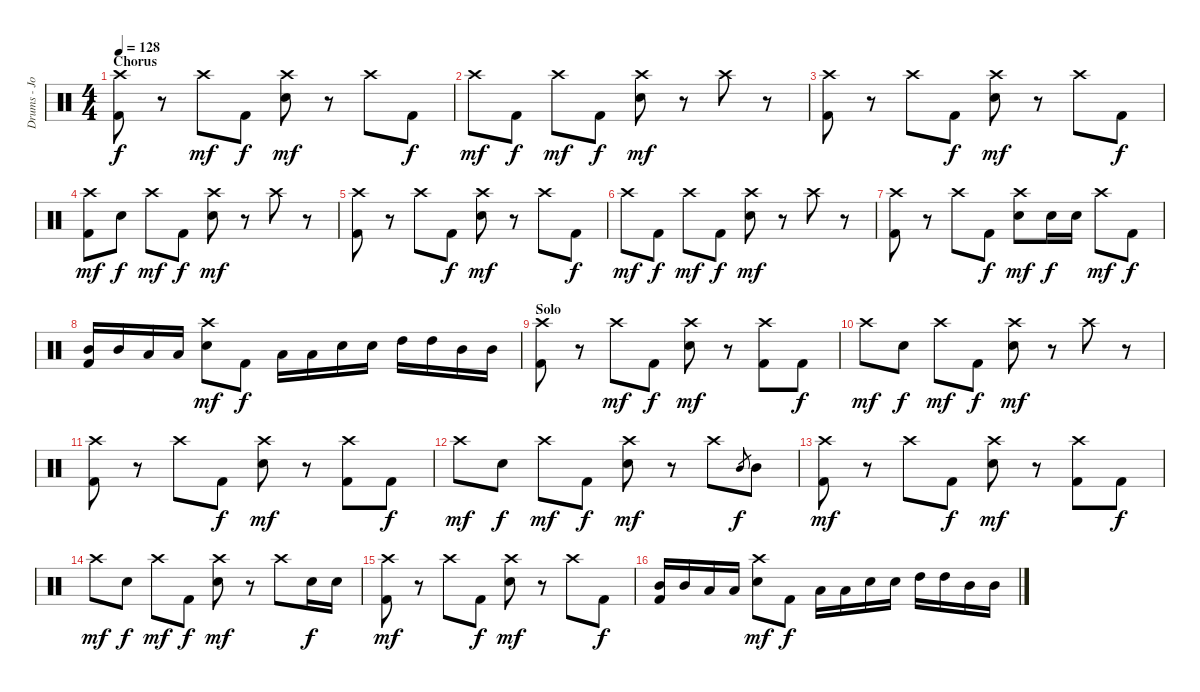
\track ("Drums - John Humphrey" "Drums - Jo") {instrument percussion}
\staff {score}
\articulation defaults
\ts (4 4)
\section ("" "Chorus")
\tempo 128
\clef neutral
\ks c
("Crash high (hit)" "Kick (hit) 2").8{dy f} r.8 "Crash high (hit)".8{dy mf} "Kick (hit) 2".8{dy f} ("Crash high (hit)" "Electric Snare (hit)").8{dy mf} r.8 "Crash high (hit)".8 "Kick (hit) 2".8{dy f} |
"Crash high (hit)".8{dy mf} "Kick (hit) 2".8{dy f} "Crash high (hit)".8{dy mf} "Kick (hit) 2".8{dy f} ("Crash high (hit)" "Electric Snare (hit)").8{dy mf} r.8 "Crash high (hit)".8 r.8 |
("Crash high (hit)" "Kick (hit) 2").8 r.8 "Crash high (hit)".8 "Kick (hit) 2".8{dy f} ("Crash high (hit)" "Electric Snare (hit)").8{dy mf} r.8 "Crash high (hit)".8 "Kick (hit) 2".8{dy f} |
("Crash high (hit)" "Kick (hit) 2").8{dy mf} "Electric Snare (hit)".8{dy f} "Crash high (hit)".8{dy mf} "Kick (hit) 2".8{dy f} ("Crash high (hit)" "Electric Snare (hit)").8{dy mf} r.8 "Crash high (hit)".8 r.8 |
("Crash high (hit)" "Kick (hit) 2").8 r.8 "Crash high (hit)".8 "Kick (hit) 2".8{dy f} ("Crash high (hit)" "Electric Snare (hit)").8{dy mf} r.8 "Crash high (hit)".8 "Kick (hit) 2".8{dy f} |
"Crash high (hit)".8{dy mf} "Kick (hit) 2".8{dy f} "Crash high (hit)".8{dy mf} "Kick (hit) 2".8{dy f} ("Crash high (hit)" "Electric Snare (hit)").8{dy mf} r.8 "Crash high (hit)".8 r.8 |
("Crash high (hit)" "Kick (hit) 2").8 r.8 "Crash high (hit)".8 "Kick (hit) 2".8{dy f} ("Crash high (hit)" "Electric Snare (hit)").8{dy mf} "Electric Snare (hit)".16{dy f} "Electric Snare (hit)".16 "Crash high (hit)".8{dy mf} "Kick (hit) 2".8{dy f} |
("Mid Tom (hit)" "Kick (hit) 2").16 "Mid Tom (hit)".16 "Low Tom (hit)".16 "Low Tom (hit)".16 ("Crash high (hit)" "Electric Snare (hit)").8{dy mf} "Kick (hit) 2".8{dy f} "Low Tom (hit)".16 "Low Tom (hit)".16 "Electric Snare (hit)".16 "Electric Snare (hit)".16 "High Tom (hit)".16 "High Tom (hit)".16 "Mid Tom (hit)".16 "Mid Tom (hit)".16 |
\section ("" "Solo")
("Crash high (hit)" "Kick (hit) 2").8 r.8 "Crash high (hit)".8{dy mf} "Kick (hit) 2".8{dy f} ("Crash high (hit)" "Electric Snare (hit)").8{dy mf} r.8 ("Crash high (hit)" "Kick (hit) 2").8 "Kick (hit) 2".8{dy f} |
"Crash high (hit)".8{dy mf} "Electric Snare (hit)".8{dy f} "Crash high (hit)".8{dy mf} "Kick (hit) 2".8{dy f} ("Crash high (hit)" "Electric Snare (hit)").8{dy mf} r.8 "Crash high (hit)".8 r.8 |
("Crash high (hit)" "Kick (hit) 2").8 r.8 "Crash high (hit)".8 "Kick (hit) 2".8{dy f} ("Crash high (hit)" "Electric Snare (hit)").8{dy mf} r.8 ("Crash high (hit)" "Kick (hit) 2").8 "Kick (hit) 2".8{dy f} |
"Crash high (hit)".8{dy mf} "Electric Snare (hit)".8{dy f} "Crash high (hit)".8{dy mf} "Kick (hit) 2".8{dy f} ("Crash high (hit)" "Electric Snare (hit)").8{dy mf} r.8 "Crash high (hit)".8 "Mid Tom (hit)".8{gr dy f} "Mid Tom (hit)".8 |
("Crash high (hit)" "Kick (hit) 2").8{dy mf} r.8 "Crash high (hit)".8 "Kick (hit) 2".8{dy f} ("Crash high (hit)" "Electric Snare (hit)").8{dy mf} r.8 ("Crash high (hit)" "Kick (hit) 2").8 "Kick (hit) 2".8{dy f} |
"Crash high (hit)".8{dy mf} "Electric Snare (hit)".8{dy f} "Crash high (hit)".8{dy mf} "Kick (hit) 2".8{dy f} ("Crash high (hit)" "Electric Snare (hit)").8{dy mf} r.8 "Crash high (hit)".8 "Electric Snare (hit)".16{dy f} "Electric Snare (hit)".16 |
("Crash high (hit)" "Kick (hit) 2").8{dy mf} r.8 "Crash high (hit)".8 "Kick (hit) 2".8{dy f} ("Crash high (hit)" "Electric Snare (hit)").8{dy mf} r.8 "Crash high (hit)".8 "Kick (hit) 2".8{dy f} |
("Mid Tom (hit)" "Kick (hit) 2").16 "Mid Tom (hit)".16 "Low Tom (hit)".16 "Low Tom (hit)".16 ("Crash high (hit)" "Electric Snare (hit)").8{dy mf} "Kick (hit) 2".8{dy f} "Low Tom (hit)".16 "Low Tom (hit)".16 "Electric Snare (hit)".16 "Electric Snare (hit)".16 "High Tom (hit)".16 "High Tom (hit)".16 "Mid Tom (hit)".16 "Mid Tom (hit)".16
